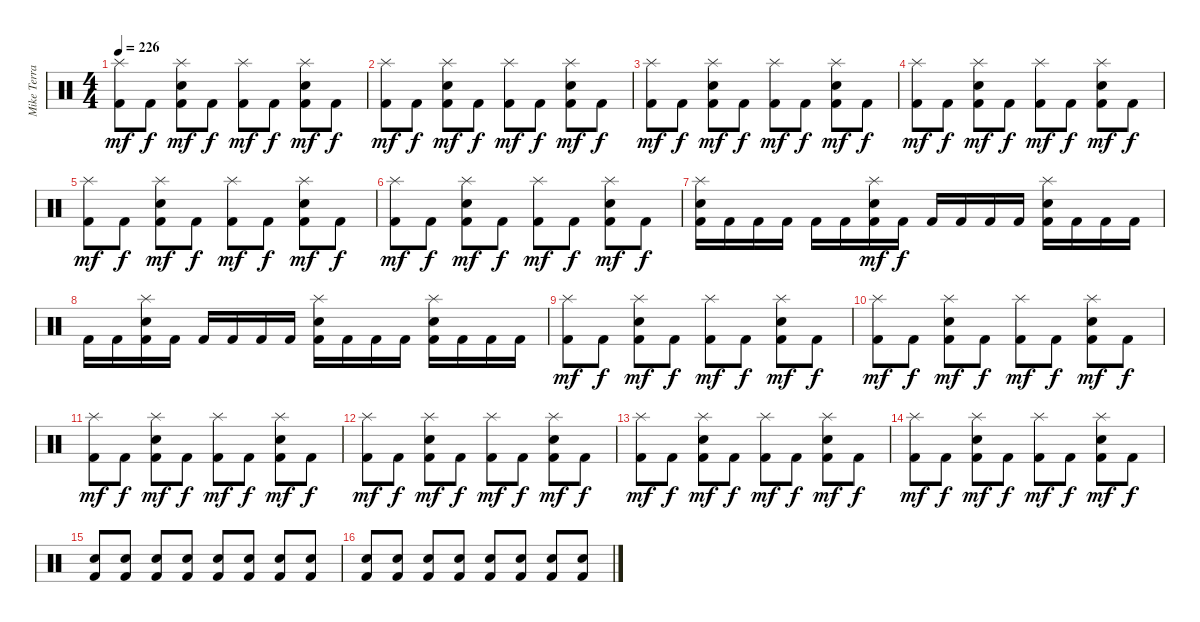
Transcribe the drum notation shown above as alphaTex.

\track ("Mike Terrana" "Mike Terra") {instrument percussion}
\staff {score}
\articulation defaults
\ts (4 4)
\tempo 226
\clef neutral
\ks c
("Splash (hit)" "Kick (hit) 2").8{dy mf} "Kick (hit) 2".8{dy f} ("Splash (hit)" "Snare (hit) 2" "Kick (hit) 2").8{dy mf} "Kick (hit) 2".8{dy f} ("Splash (hit)" "Kick (hit) 2").8{dy mf} "Kick (hit) 2".8{dy f} ("Splash (hit)" "Snare (hit) 2" "Kick (hit) 2").8{dy mf} "Kick (hit) 2".8{dy f} |
("Splash (hit)" "Kick (hit) 2").8{dy mf} "Kick (hit) 2".8{dy f} ("Splash (hit)" "Snare (hit) 2" "Kick (hit) 2").8{dy mf} "Kick (hit) 2".8{dy f} ("Splash (hit)" "Kick (hit) 2").8{dy mf} "Kick (hit) 2".8{dy f} ("Splash (hit)" "Snare (hit) 2" "Kick (hit) 2").8{dy mf} "Kick (hit) 2".8{dy f} |
("Splash (hit)" "Kick (hit) 2").8{dy mf} "Kick (hit) 2".8{dy f} ("Splash (hit)" "Snare (hit) 2" "Kick (hit) 2").8{dy mf} "Kick (hit) 2".8{dy f} ("Splash (hit)" "Kick (hit) 2").8{dy mf} "Kick (hit) 2".8{dy f} ("Splash (hit)" "Snare (hit) 2" "Kick (hit) 2").8{dy mf} "Kick (hit) 2".8{dy f} |
("Splash (hit)" "Kick (hit) 2").8{dy mf} "Kick (hit) 2".8{dy f} ("Splash (hit)" "Snare (hit) 2" "Kick (hit) 2").8{dy mf} "Kick (hit) 2".8{dy f} ("Splash (hit)" "Kick (hit) 2").8{dy mf} "Kick (hit) 2".8{dy f} ("Splash (hit)" "Snare (hit) 2" "Kick (hit) 2").8{dy mf} "Kick (hit) 2".8{dy f} |
("Splash (hit)" "Kick (hit) 2").8{dy mf} "Kick (hit) 2".8{dy f} ("Splash (hit)" "Snare (hit) 2" "Kick (hit) 2").8{dy mf} "Kick (hit) 2".8{dy f} ("Splash (hit)" "Kick (hit) 2").8{dy mf} "Kick (hit) 2".8{dy f} ("Splash (hit)" "Snare (hit) 2" "Kick (hit) 2").8{dy mf} "Kick (hit) 2".8{dy f} |
("Splash (hit)" "Kick (hit) 2").8{dy mf} "Kick (hit) 2".8{dy f} ("Splash (hit)" "Snare (hit) 2" "Kick (hit) 2").8{dy mf} "Kick (hit) 2".8{dy f} ("Splash (hit)" "Kick (hit) 2").8{dy mf} "Kick (hit) 2".8{dy f} ("Splash (hit)" "Snare (hit) 2" "Kick (hit) 2").8{dy mf} "Kick (hit) 2".8{dy f} |
("Splash (hit)" "Snare (hit) 2" "Kick (hit) 2").16 "Kick (hit) 2".16 "Kick (hit) 2".16 "Kick (hit) 2".16 "Kick (hit) 2".16 "Kick (hit) 2".16 ("Splash (hit)" "Snare (hit) 2" "Kick (hit) 2").16{dy mf} "Kick (hit) 2".16{dy f} "Kick (hit) 2".16 "Kick (hit) 2".16 "Kick (hit) 2".16 "Kick (hit) 2".16 ("Splash (hit)" "Snare (hit) 2" "Kick (hit) 2").16 "Kick (hit) 2".16 "Kick (hit) 2".16 "Kick (hit) 2".16 |
"Kick (hit) 2".16 "Kick (hit) 2".16 ("Splash (hit)" "Snare (hit) 2" "Kick (hit) 2").16 "Kick (hit) 2".16 "Kick (hit) 2".16 "Kick (hit) 2".16 "Kick (hit) 2".16 "Kick (hit) 2".16 ("Splash (hit)" "Snare (hit) 2" "Kick (hit) 2").16 "Kick (hit) 2".16 "Kick (hit) 2".16 "Kick (hit) 2".16 ("Splash (hit)" "Snare (hit) 2" "Kick (hit) 2").16 "Kick (hit) 2".16 "Kick (hit) 2".16 "Kick (hit) 2".16 |
("Splash (hit)" "Kick (hit) 2").8{dy mf} "Kick (hit) 2".8{dy f} ("Splash (hit)" "Snare (hit) 2" "Kick (hit) 2").8{dy mf} "Kick (hit) 2".8{dy f} ("Splash (hit)" "Kick (hit) 2").8{dy mf} "Kick (hit) 2".8{dy f} ("Splash (hit)" "Snare (hit) 2" "Kick (hit) 2").8{dy mf} "Kick (hit) 2".8{dy f} |
("Splash (hit)" "Kick (hit) 2").8{dy mf} "Kick (hit) 2".8{dy f} ("Splash (hit)" "Snare (hit) 2" "Kick (hit) 2").8{dy mf} "Kick (hit) 2".8{dy f} ("Splash (hit)" "Kick (hit) 2").8{dy mf} "Kick (hit) 2".8{dy f} ("Splash (hit)" "Snare (hit) 2" "Kick (hit) 2").8{dy mf} "Kick (hit) 2".8{dy f} |
("Splash (hit)" "Kick (hit) 2").8{dy mf} "Kick (hit) 2".8{dy f} ("Splash (hit)" "Snare (hit) 2" "Kick (hit) 2").8{dy mf} "Kick (hit) 2".8{dy f} ("Splash (hit)" "Kick (hit) 2").8{dy mf} "Kick (hit) 2".8{dy f} ("Splash (hit)" "Snare (hit) 2" "Kick (hit) 2").8{dy mf} "Kick (hit) 2".8{dy f} |
("Splash (hit)" "Kick (hit) 2").8{dy mf} "Kick (hit) 2".8{dy f} ("Splash (hit)" "Snare (hit) 2" "Kick (hit) 2").8{dy mf} "Kick (hit) 2".8{dy f} ("Splash (hit)" "Kick (hit) 2").8{dy mf} "Kick (hit) 2".8{dy f} ("Splash (hit)" "Snare (hit) 2" "Kick (hit) 2").8{dy mf} "Kick (hit) 2".8{dy f} |
("Splash (hit)" "Kick (hit) 2").8{dy mf} "Kick (hit) 2".8{dy f} ("Splash (hit)" "Snare (hit) 2" "Kick (hit) 2").8{dy mf} "Kick (hit) 2".8{dy f} ("Splash (hit)" "Kick (hit) 2").8{dy mf} "Kick (hit) 2".8{dy f} ("Splash (hit)" "Snare (hit) 2" "Kick (hit) 2").8{dy mf} "Kick (hit) 2".8{dy f} |
("Splash (hit)" "Kick (hit) 2").8{dy mf} "Kick (hit) 2".8{dy f} ("Splash (hit)" "Snare (hit) 2" "Kick (hit) 2").8{dy mf} "Kick (hit) 2".8{dy f} ("Splash (hit)" "Kick (hit) 2").8{dy mf} "Kick (hit) 2".8{dy f} ("Splash (hit)" "Snare (hit) 2" "Kick (hit) 2").8{dy mf} "Kick (hit) 2".8{dy f} |
("Snare (hit) 2" "Kick (hit) 2").8 ("Snare (hit) 2" "Kick (hit) 2").8 ("Snare (hit) 2" "Kick (hit) 2").8 ("Snare (hit) 2" "Kick (hit) 2").8 ("Snare (hit) 2" "Kick (hit) 2").8 ("Snare (hit) 2" "Kick (hit) 2").8 ("Snare (hit) 2" "Kick (hit) 2").8 ("Snare (hit) 2" "Kick (hit) 2").8 |
("Snare (hit) 2" "Kick (hit) 2").8 ("Snare (hit) 2" "Kick (hit) 2").8 ("Snare (hit) 2" "Kick (hit) 2").8 ("Snare (hit) 2" "Kick (hit) 2").8 ("Snare (hit) 2" "Kick (hit) 2").8 ("Snare (hit) 2" "Kick (hit) 2").8 ("Snare (hit) 2" "Kick (hit) 2").8 ("Snare (hit) 2" "Kick (hit) 2").8
